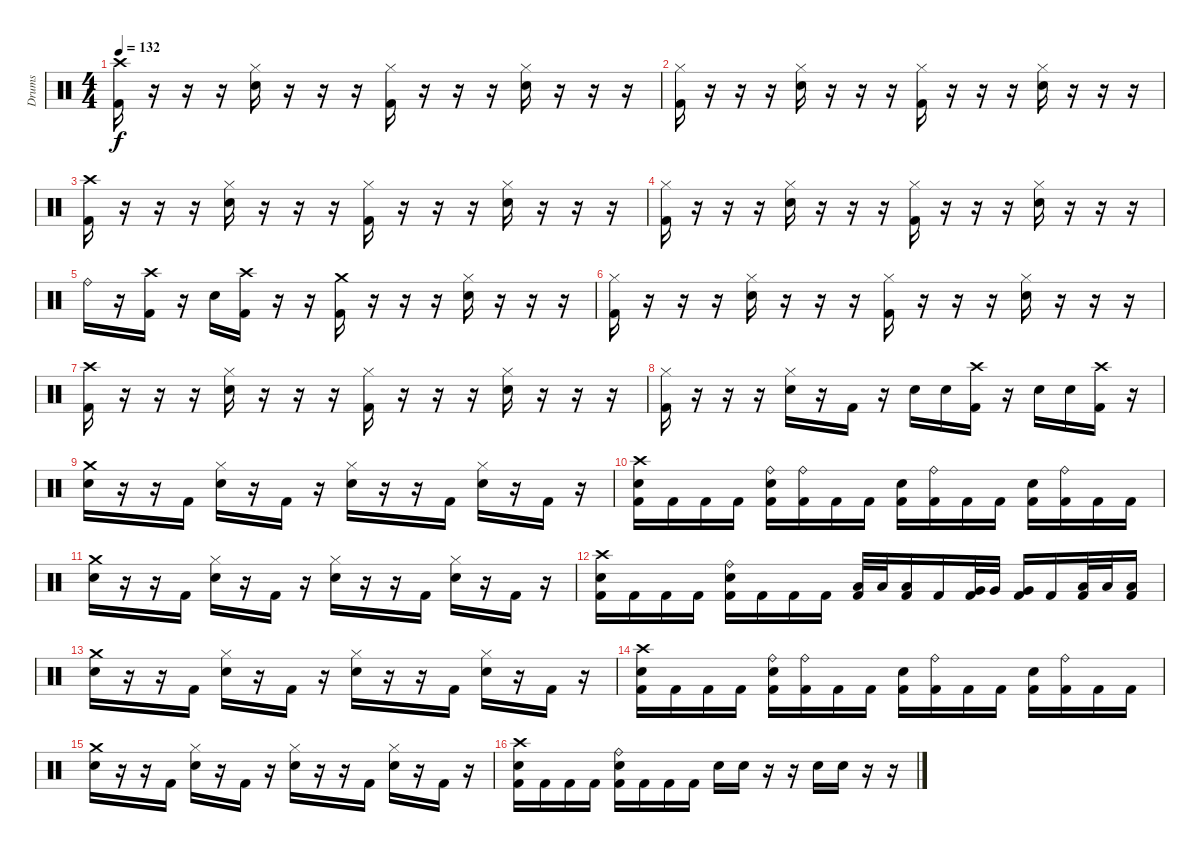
\track ("Drums" "Drums") {instrument percussion}
\staff {score}
\articulation defaults
\ts (4 4)
\tempo 132
\clef neutral
\ks c
("Crash high (hit)" "Kick (hit) 2").16{dy f} r.16 r.16 r.16 ("Hi-Hat (closed)" "Electric Snare (hit)").16 r.16 r.16 r.16 ("Hi-Hat (closed)" "Kick (hit) 2").16 r.16 r.16 r.16 ("Hi-Hat (closed)" "Electric Snare (hit)").16 r.16 r.16 r.16 |
("Hi-Hat (closed)" "Kick (hit) 2").16 r.16 r.16 r.16 ("Hi-Hat (closed)" "Electric Snare (hit)").16 r.16 r.16 r.16 ("Hi-Hat (closed)" "Kick (hit) 2").16 r.16 r.16 r.16 ("Hi-Hat (closed)" "Electric Snare (hit)").16 r.16 r.16 r.16 |
("Crash high (hit)" "Kick (hit) 2").16 r.16 r.16 r.16 ("Hi-Hat (closed)" "Electric Snare (hit)").16 r.16 r.16 r.16 ("Hi-Hat (closed)" "Kick (hit) 2").16 r.16 r.16 r.16 ("Hi-Hat (closed)" "Electric Snare (hit)").16 r.16 r.16 r.16 |
("Hi-Hat (closed)" "Kick (hit) 2").16 r.16 r.16 r.16 ("Hi-Hat (closed)" "Electric Snare (hit)").16 r.16 r.16 r.16 ("Hi-Hat (closed)" "Kick (hit) 2").16 r.16 r.16 r.16 ("Hi-Hat (closed)" "Electric Snare (hit)").16 r.16 r.16 r.16 |
"Ride (bell)".16 r.16 ("Crash high (hit)" "Kick (hit) 2").16 r.16 "Electric Snare (hit)".16 ("Crash high (hit)" "Kick (hit) 2").16 r.16 r.16 ("Crash medium (hit)" "Kick (hit) 2").16 r.16 r.16 r.16 ("Hi-Hat (closed)" "Electric Snare (hit)").16 r.16 r.16 r.16 |
("Hi-Hat (closed)" "Kick (hit) 2").16 r.16 r.16 r.16 ("Hi-Hat (closed)" "Electric Snare (hit)").16 r.16 r.16 r.16 ("Hi-Hat (closed)" "Kick (hit) 2").16 r.16 r.16 r.16 ("Hi-Hat (closed)" "Electric Snare (hit)").16 r.16 r.16 r.16 |
("Crash high (hit)" "Kick (hit) 2").16 r.16 r.16 r.16 ("Hi-Hat (closed)" "Electric Snare (hit)").16 r.16 r.16 r.16 ("Hi-Hat (closed)" "Kick (hit) 2").16 r.16 r.16 r.16 ("Hi-Hat (closed)" "Electric Snare (hit)").16 r.16 r.16 r.16 |
("Hi-Hat (closed)" "Kick (hit) 2").16 r.16 r.16 r.16 ("Hi-Hat (closed)" "Electric Snare (hit)").16 r.16 "Kick (hit) 2".16 r.16 "Electric Snare (hit)".16 "Electric Snare (hit)".16 ("Crash high (hit)" "Kick (hit) 2").16 r.16 "Electric Snare (hit)".16 "Electric Snare (hit)".16 ("Crash high (hit)" "Kick (hit) 2").16 r.16 |
("Crash medium (hit)" "Electric Snare (hit)").16 r.16 r.16 "Kick (hit) 2".16 ("Hi-Hat (closed)" "Electric Snare (hit)").16 r.16 "Kick (hit) 2".16 r.16 ("Hi-Hat (closed)" "Electric Snare (hit)").16 r.16 r.16 "Kick (hit) 2".16 ("Hi-Hat (closed)" "Electric Snare (hit)").16 r.16 "Kick (hit) 2".16 r.16 |
("Crash high (hit)" "Electric Snare (hit)" "Kick (hit) 2").16 "Kick (hit) 2".16 "Kick (hit) 2".16 "Kick (hit) 2".16 ("Ride (bell)" "Electric Snare (hit)" "Kick (hit) 2").16 ("Ride (bell)" "Kick (hit) 2").16 "Kick (hit) 2".16 "Kick (hit) 2".16 ("Electric Snare (hit)" "Kick (hit) 2").16 ("Ride (bell)" "Kick (hit) 2").16 "Kick (hit) 2".16 "Kick (hit) 2".16 ("Electric Snare (hit)" "Kick (hit) 2").16 ("Ride (bell)" "Kick (hit) 2").16 "Kick (hit) 2".16 "Kick (hit) 2".16 |
("Crash medium (hit)" "Electric Snare (hit)").16 r.16 r.16 "Kick (hit) 2".16 ("Hi-Hat (closed)" "Electric Snare (hit)").16 r.16 "Kick (hit) 2".16 r.16 ("Hi-Hat (closed)" "Electric Snare (hit)").16 r.16 r.16 "Kick (hit) 2".16 ("Hi-Hat (closed)" "Electric Snare (hit)").16 r.16 "Kick (hit) 2".16 r.16 |
("Crash high (hit)" "Electric Snare (hit)" "Kick (hit) 2").16 "Kick (hit) 2".16 "Kick (hit) 2".16 "Kick (hit) 2".16 ("Ride (bell)" "Electric Snare (hit)" "Kick (hit) 2").16 "Kick (hit) 2".16 "Kick (hit) 2".16 "Kick (hit) 2".16 ("Low Tom (hit)" "Kick (hit) 2").32 "Low Tom (hit)".32 ("Low Tom (hit)" "Kick (hit) 2").16 "Kick (hit) 2".16 ("Very Low Tom (hit)" "Kick (hit) 2").32 "Very Low Tom (hit)".32 ("Very Low Tom (hit)" "Kick (hit) 2").16 "Kick (hit) 2".16 ("Low Floor Tom (hit)" "Kick (hit) 2").32 "Low Floor Tom (hit)".32 ("Low Floor Tom (hit)" "Kick (hit) 2").16 |
("Crash medium (hit)" "Electric Snare (hit)").16 r.16 r.16 "Kick (hit) 2".16 ("Hi-Hat (closed)" "Electric Snare (hit)").16 r.16 "Kick (hit) 2".16 r.16 ("Hi-Hat (closed)" "Electric Snare (hit)").16 r.16 r.16 "Kick (hit) 2".16 ("Hi-Hat (closed)" "Electric Snare (hit)").16 r.16 "Kick (hit) 2".16 r.16 |
("Crash high (hit)" "Electric Snare (hit)" "Kick (hit) 2").16 "Kick (hit) 2".16 "Kick (hit) 2".16 "Kick (hit) 2".16 ("Ride (bell)" "Electric Snare (hit)" "Kick (hit) 2").16 ("Ride (bell)" "Kick (hit) 2").16 "Kick (hit) 2".16 "Kick (hit) 2".16 ("Electric Snare (hit)" "Kick (hit) 2").16 ("Ride (bell)" "Kick (hit) 2").16 "Kick (hit) 2".16 "Kick (hit) 2".16 ("Electric Snare (hit)" "Kick (hit) 2").16 ("Ride (bell)" "Kick (hit) 2").16 "Kick (hit) 2".16 "Kick (hit) 2".16 |
("Crash medium (hit)" "Electric Snare (hit)").16 r.16 r.16 "Kick (hit) 2".16 ("Hi-Hat (closed)" "Electric Snare (hit)").16 r.16 "Kick (hit) 2".16 r.16 ("Hi-Hat (closed)" "Electric Snare (hit)").16 r.16 r.16 "Kick (hit) 2".16 ("Hi-Hat (closed)" "Electric Snare (hit)").16 r.16 "Kick (hit) 2".16 r.16 |
("Crash high (hit)" "Electric Snare (hit)" "Kick (hit) 2").16 "Kick (hit) 2".16 "Kick (hit) 2".16 "Kick (hit) 2".16 ("Ride (bell)" "Electric Snare (hit)" "Kick (hit) 2").16 "Kick (hit) 2".16 "Kick (hit) 2".16 "Kick (hit) 2".16 "Electric Snare (hit)".16 "Electric Snare (hit)".16 r.16 r.16 "Electric Snare (hit)".16 "Electric Snare (hit)".16 r.16 r.16
